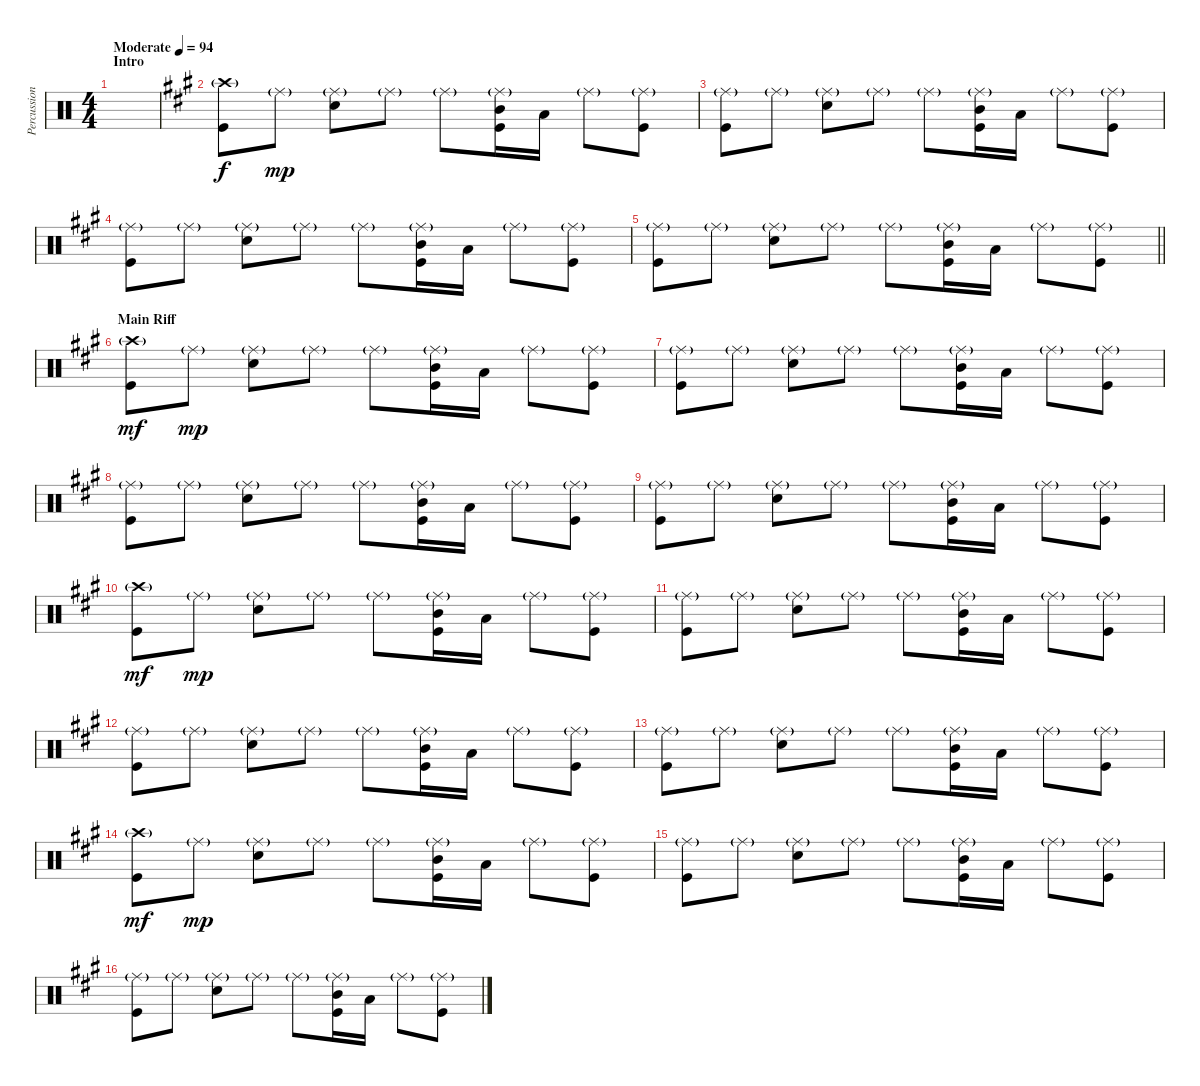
\track ("Percussion" "Percussion") {instrument percussion}
\staff {score}
\articulation defaults
\ts (4 4)
\section ("" "Intro")
\tempo (94 "Moderate")
\clef neutral
\ks c
|
\ks a
("Crash high (hit)"{g} "Kick (hit)").8 "Ride (middle)"{g}.8{dy mp} ("Ride (middle)"{g} "Electric Snare (hit)").8 "Ride (middle)"{g}.8 "Ride (middle)"{g}.8 ("Ride (middle)"{g} "Mid Tom (hit)" "Kick (hit)").16 "Low Tom (hit)".16 "Ride (middle)"{g}.8 ("Ride (middle)"{g} "Kick (hit)").8 |
("Ride (middle)"{g} "Kick (hit)").8 "Ride (middle)"{g}.8 ("Ride (middle)"{g} "Electric Snare (hit)").8 "Ride (middle)"{g}.8 "Ride (middle)"{g}.8 ("Ride (middle)"{g} "Mid Tom (hit)" "Kick (hit)").16 "Low Tom (hit)".16 "Ride (middle)"{g}.8 ("Ride (middle)"{g} "Kick (hit)").8 |
("Ride (middle)"{g} "Kick (hit)").8 "Ride (middle)"{g}.8 ("Ride (middle)"{g} "Electric Snare (hit)").8 "Ride (middle)"{g}.8 "Ride (middle)"{g}.8 ("Ride (middle)"{g} "Mid Tom (hit)" "Kick (hit)").16 "Low Tom (hit)".16 "Ride (middle)"{g}.8 ("Ride (middle)"{g} "Kick (hit)").8 |
\barLineRight lightlight
("Ride (middle)"{g} "Kick (hit)").8 "Ride (middle)"{g}.8 ("Ride (middle)"{g} "Electric Snare (hit)").8 "Ride (middle)"{g}.8 "Ride (middle)"{g}.8 ("Ride (middle)"{g} "Mid Tom (hit)" "Kick (hit)").16 "Low Tom (hit)".16 "Ride (middle)"{g}.8 ("Ride (middle)"{g} "Kick (hit)").8 |
\section ("" "Main Riff")
("Crash high (hit)"{g} "Kick (hit)").8{dy mf} "Ride (middle)"{g}.8{dy mp} ("Ride (middle)"{g} "Electric Snare (hit)").8 "Ride (middle)"{g}.8 "Ride (middle)"{g}.8 ("Ride (middle)"{g} "Mid Tom (hit)" "Kick (hit)").16 "Low Tom (hit)".16 "Ride (middle)"{g}.8 ("Ride (middle)"{g} "Kick (hit)").8 |
("Ride (middle)"{g} "Kick (hit)").8 "Ride (middle)"{g}.8 ("Ride (middle)"{g} "Electric Snare (hit)").8 "Ride (middle)"{g}.8 "Ride (middle)"{g}.8 ("Ride (middle)"{g} "Mid Tom (hit)" "Kick (hit)").16 "Low Tom (hit)".16 "Ride (middle)"{g}.8 ("Ride (middle)"{g} "Kick (hit)").8 |
("Ride (middle)"{g} "Kick (hit)").8 "Ride (middle)"{g}.8 ("Ride (middle)"{g} "Electric Snare (hit)").8 "Ride (middle)"{g}.8 "Ride (middle)"{g}.8 ("Ride (middle)"{g} "Mid Tom (hit)" "Kick (hit)").16 "Low Tom (hit)".16 "Ride (middle)"{g}.8 ("Ride (middle)"{g} "Kick (hit)").8 |
("Ride (middle)"{g} "Kick (hit)").8 "Ride (middle)"{g}.8 ("Ride (middle)"{g} "Electric Snare (hit)").8 "Ride (middle)"{g}.8 "Ride (middle)"{g}.8 ("Ride (middle)"{g} "Mid Tom (hit)" "Kick (hit)").16 "Low Tom (hit)".16 "Ride (middle)"{g}.8 ("Ride (middle)"{g} "Kick (hit)").8 |
("Crash high (hit)"{g} "Kick (hit)").8{dy mf} "Ride (middle)"{g}.8{dy mp} ("Ride (middle)"{g} "Electric Snare (hit)").8 "Ride (middle)"{g}.8 "Ride (middle)"{g}.8 ("Ride (middle)"{g} "Mid Tom (hit)" "Kick (hit)").16 "Low Tom (hit)".16 "Ride (middle)"{g}.8 ("Ride (middle)"{g} "Kick (hit)").8 |
("Ride (middle)"{g} "Kick (hit)").8 "Ride (middle)"{g}.8 ("Ride (middle)"{g} "Electric Snare (hit)").8 "Ride (middle)"{g}.8 "Ride (middle)"{g}.8 ("Ride (middle)"{g} "Mid Tom (hit)" "Kick (hit)").16 "Low Tom (hit)".16 "Ride (middle)"{g}.8 ("Ride (middle)"{g} "Kick (hit)").8 |
("Ride (middle)"{g} "Kick (hit)").8 "Ride (middle)"{g}.8 ("Ride (middle)"{g} "Electric Snare (hit)").8 "Ride (middle)"{g}.8 "Ride (middle)"{g}.8 ("Ride (middle)"{g} "Mid Tom (hit)" "Kick (hit)").16 "Low Tom (hit)".16 "Ride (middle)"{g}.8 ("Ride (middle)"{g} "Kick (hit)").8 |
("Ride (middle)"{g} "Kick (hit)").8 "Ride (middle)"{g}.8 ("Ride (middle)"{g} "Electric Snare (hit)").8 "Ride (middle)"{g}.8 "Ride (middle)"{g}.8 ("Ride (middle)"{g} "Mid Tom (hit)" "Kick (hit)").16 "Low Tom (hit)".16 "Ride (middle)"{g}.8 ("Ride (middle)"{g} "Kick (hit)").8 |
("Crash high (hit)"{g} "Kick (hit)").8{dy mf} "Ride (middle)"{g}.8{dy mp} ("Ride (middle)"{g} "Electric Snare (hit)").8 "Ride (middle)"{g}.8 "Ride (middle)"{g}.8 ("Ride (middle)"{g} "Mid Tom (hit)" "Kick (hit)").16 "Low Tom (hit)".16 "Ride (middle)"{g}.8 ("Ride (middle)"{g} "Kick (hit)").8 |
("Ride (middle)"{g} "Kick (hit)").8 "Ride (middle)"{g}.8 ("Ride (middle)"{g} "Electric Snare (hit)").8 "Ride (middle)"{g}.8 "Ride (middle)"{g}.8 ("Ride (middle)"{g} "Mid Tom (hit)" "Kick (hit)").16 "Low Tom (hit)".16 "Ride (middle)"{g}.8 ("Ride (middle)"{g} "Kick (hit)").8 |
("Ride (middle)"{g} "Kick (hit)").8 "Ride (middle)"{g}.8 ("Ride (middle)"{g} "Electric Snare (hit)").8 "Ride (middle)"{g}.8 "Ride (middle)"{g}.8 ("Ride (middle)"{g} "Mid Tom (hit)" "Kick (hit)").16 "Low Tom (hit)".16 "Ride (middle)"{g}.8 ("Ride (middle)"{g} "Kick (hit)").8
